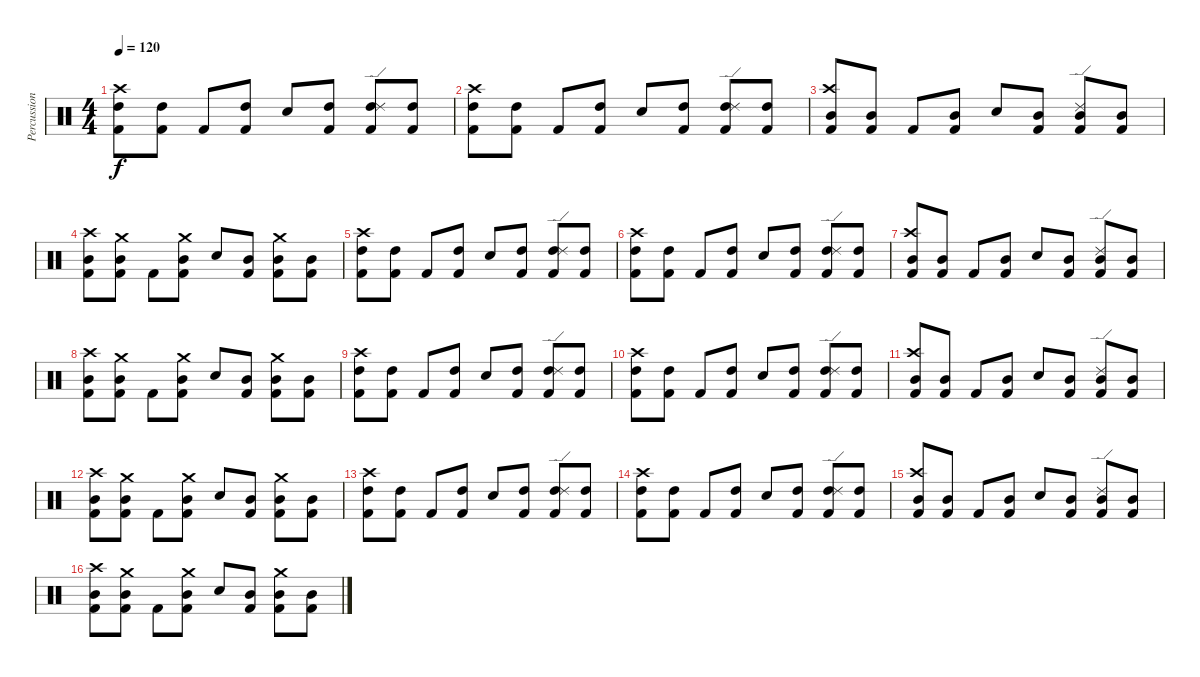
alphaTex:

\track ("Percussion" "Percussion") {instrument percussion}
\staff {score}
\articulation defaults
\ts (4 4)
\tempo 120
\clef neutral
\ks c
("Kick (hit) 2" "High Tom (hit)" "Crash high (hit)").8{dy f} ("Kick (hit) 2" "High Tom (hit)").8 "Kick (hit) 2".8 ("Kick (hit) 2" "High Tom (hit)").8 "Electric Snare (hit)".8 ("Kick (hit) 2" "High Tom (hit)").8 ("Kick (hit) 2" "High Tom (hit)" "Ride (edge) 2").8 ("Kick (hit) 2" "High Tom (hit)").8 |
("Kick (hit) 2" "High Tom (hit)" "Crash high (hit)").8 ("Kick (hit) 2" "High Tom (hit)").8 "Kick (hit) 2".8 ("Kick (hit) 2" "High Tom (hit)").8 "Electric Snare (hit)".8 ("Kick (hit) 2" "High Tom (hit)").8 ("Kick (hit) 2" "High Tom (hit)" "Ride (edge) 2").8 ("Kick (hit) 2" "High Tom (hit)").8 |
("Kick (hit) 2" "Mid Tom (hit)" "Crash high (hit)").8 ("Kick (hit) 2" "Mid Tom (hit)").8 "Kick (hit) 2".8 ("Kick (hit) 2" "Mid Tom (hit)").8 "Electric Snare (hit)".8 ("Kick (hit) 2" "Mid Tom (hit)").8 ("Kick (hit) 2" "Mid Tom (hit)" "Ride (edge) 2").8 ("Kick (hit) 2" "Mid Tom (hit)").8 |
("Kick (hit) 2" "Mid Tom (hit)" "Crash high (hit)").8 ("Kick (hit) 2" "Mid Tom (hit)" "Crash medium (hit)").8 "Kick (hit) 2".8 ("Kick (hit) 2" "Mid Tom (hit)" "Crash medium (hit)").8 "Electric Snare (hit)".8 ("Kick (hit) 2" "Mid Tom (hit)").8 ("Kick (hit) 2" "Mid Tom (hit)" "Crash medium (hit)").8 ("Kick (hit) 2" "Mid Tom (hit)").8 |
("Kick (hit) 2" "High Tom (hit)" "Crash high (hit)").8 ("Kick (hit) 2" "High Tom (hit)").8 "Kick (hit) 2".8 ("Kick (hit) 2" "High Tom (hit)").8 "Electric Snare (hit)".8 ("Kick (hit) 2" "High Tom (hit)").8 ("Kick (hit) 2" "High Tom (hit)" "Ride (edge) 2").8 ("Kick (hit) 2" "High Tom (hit)").8 |
("Kick (hit) 2" "High Tom (hit)" "Crash high (hit)").8 ("Kick (hit) 2" "High Tom (hit)").8 "Kick (hit) 2".8 ("Kick (hit) 2" "High Tom (hit)").8 "Electric Snare (hit)".8 ("Kick (hit) 2" "High Tom (hit)").8 ("Kick (hit) 2" "High Tom (hit)" "Ride (edge) 2").8 ("Kick (hit) 2" "High Tom (hit)").8 |
("Kick (hit) 2" "Mid Tom (hit)" "Crash high (hit)").8 ("Kick (hit) 2" "Mid Tom (hit)").8 "Kick (hit) 2".8 ("Kick (hit) 2" "Mid Tom (hit)").8 "Electric Snare (hit)".8 ("Kick (hit) 2" "Mid Tom (hit)").8 ("Kick (hit) 2" "Mid Tom (hit)" "Ride (edge) 2").8 ("Kick (hit) 2" "Mid Tom (hit)").8 |
("Kick (hit) 2" "Mid Tom (hit)" "Crash high (hit)").8 ("Kick (hit) 2" "Mid Tom (hit)" "Crash medium (hit)").8 "Kick (hit) 2".8 ("Kick (hit) 2" "Mid Tom (hit)" "Crash medium (hit)").8 "Electric Snare (hit)".8 ("Kick (hit) 2" "Mid Tom (hit)").8 ("Kick (hit) 2" "Mid Tom (hit)" "Crash medium (hit)").8 ("Kick (hit) 2" "Mid Tom (hit)").8 |
("Kick (hit) 2" "High Tom (hit)" "Crash high (hit)").8 ("Kick (hit) 2" "High Tom (hit)").8 "Kick (hit) 2".8 ("Kick (hit) 2" "High Tom (hit)").8 "Electric Snare (hit)".8 ("Kick (hit) 2" "High Tom (hit)").8 ("Kick (hit) 2" "High Tom (hit)" "Ride (edge) 2").8 ("Kick (hit) 2" "High Tom (hit)").8 |
("Kick (hit) 2" "High Tom (hit)" "Crash high (hit)").8 ("Kick (hit) 2" "High Tom (hit)").8 "Kick (hit) 2".8 ("Kick (hit) 2" "High Tom (hit)").8 "Electric Snare (hit)".8 ("Kick (hit) 2" "High Tom (hit)").8 ("Kick (hit) 2" "High Tom (hit)" "Ride (edge) 2").8 ("Kick (hit) 2" "High Tom (hit)").8 |
("Kick (hit) 2" "Mid Tom (hit)" "Crash high (hit)").8 ("Kick (hit) 2" "Mid Tom (hit)").8 "Kick (hit) 2".8 ("Kick (hit) 2" "Mid Tom (hit)").8 "Electric Snare (hit)".8 ("Kick (hit) 2" "Mid Tom (hit)").8 ("Kick (hit) 2" "Mid Tom (hit)" "Ride (edge) 2").8 ("Kick (hit) 2" "Mid Tom (hit)").8 |
("Kick (hit) 2" "Mid Tom (hit)" "Crash high (hit)").8 ("Kick (hit) 2" "Mid Tom (hit)" "Crash medium (hit)").8 "Kick (hit) 2".8 ("Kick (hit) 2" "Mid Tom (hit)" "Crash medium (hit)").8 "Electric Snare (hit)".8 ("Kick (hit) 2" "Mid Tom (hit)").8 ("Kick (hit) 2" "Mid Tom (hit)" "Crash medium (hit)").8 ("Kick (hit) 2" "Mid Tom (hit)").8 |
("Kick (hit) 2" "High Tom (hit)" "Crash high (hit)").8 ("Kick (hit) 2" "High Tom (hit)").8 "Kick (hit) 2".8 ("Kick (hit) 2" "High Tom (hit)").8 "Electric Snare (hit)".8 ("Kick (hit) 2" "High Tom (hit)").8 ("Kick (hit) 2" "High Tom (hit)" "Ride (edge) 2").8 ("Kick (hit) 2" "High Tom (hit)").8 |
("Kick (hit) 2" "High Tom (hit)" "Crash high (hit)").8 ("Kick (hit) 2" "High Tom (hit)").8 "Kick (hit) 2".8 ("Kick (hit) 2" "High Tom (hit)").8 "Electric Snare (hit)".8 ("Kick (hit) 2" "High Tom (hit)").8 ("Kick (hit) 2" "High Tom (hit)" "Ride (edge) 2").8 ("Kick (hit) 2" "High Tom (hit)").8 |
("Kick (hit) 2" "Mid Tom (hit)" "Crash high (hit)").8 ("Kick (hit) 2" "Mid Tom (hit)").8 "Kick (hit) 2".8 ("Kick (hit) 2" "Mid Tom (hit)").8 "Electric Snare (hit)".8 ("Kick (hit) 2" "Mid Tom (hit)").8 ("Kick (hit) 2" "Mid Tom (hit)" "Ride (edge) 2").8 ("Kick (hit) 2" "Mid Tom (hit)").8 |
("Kick (hit) 2" "Mid Tom (hit)" "Crash high (hit)").8 ("Kick (hit) 2" "Mid Tom (hit)" "Crash medium (hit)").8 "Kick (hit) 2".8 ("Kick (hit) 2" "Mid Tom (hit)" "Crash medium (hit)").8 "Electric Snare (hit)".8 ("Kick (hit) 2" "Mid Tom (hit)").8 ("Kick (hit) 2" "Mid Tom (hit)" "Crash medium (hit)").8 ("Kick (hit) 2" "Mid Tom (hit)").8
